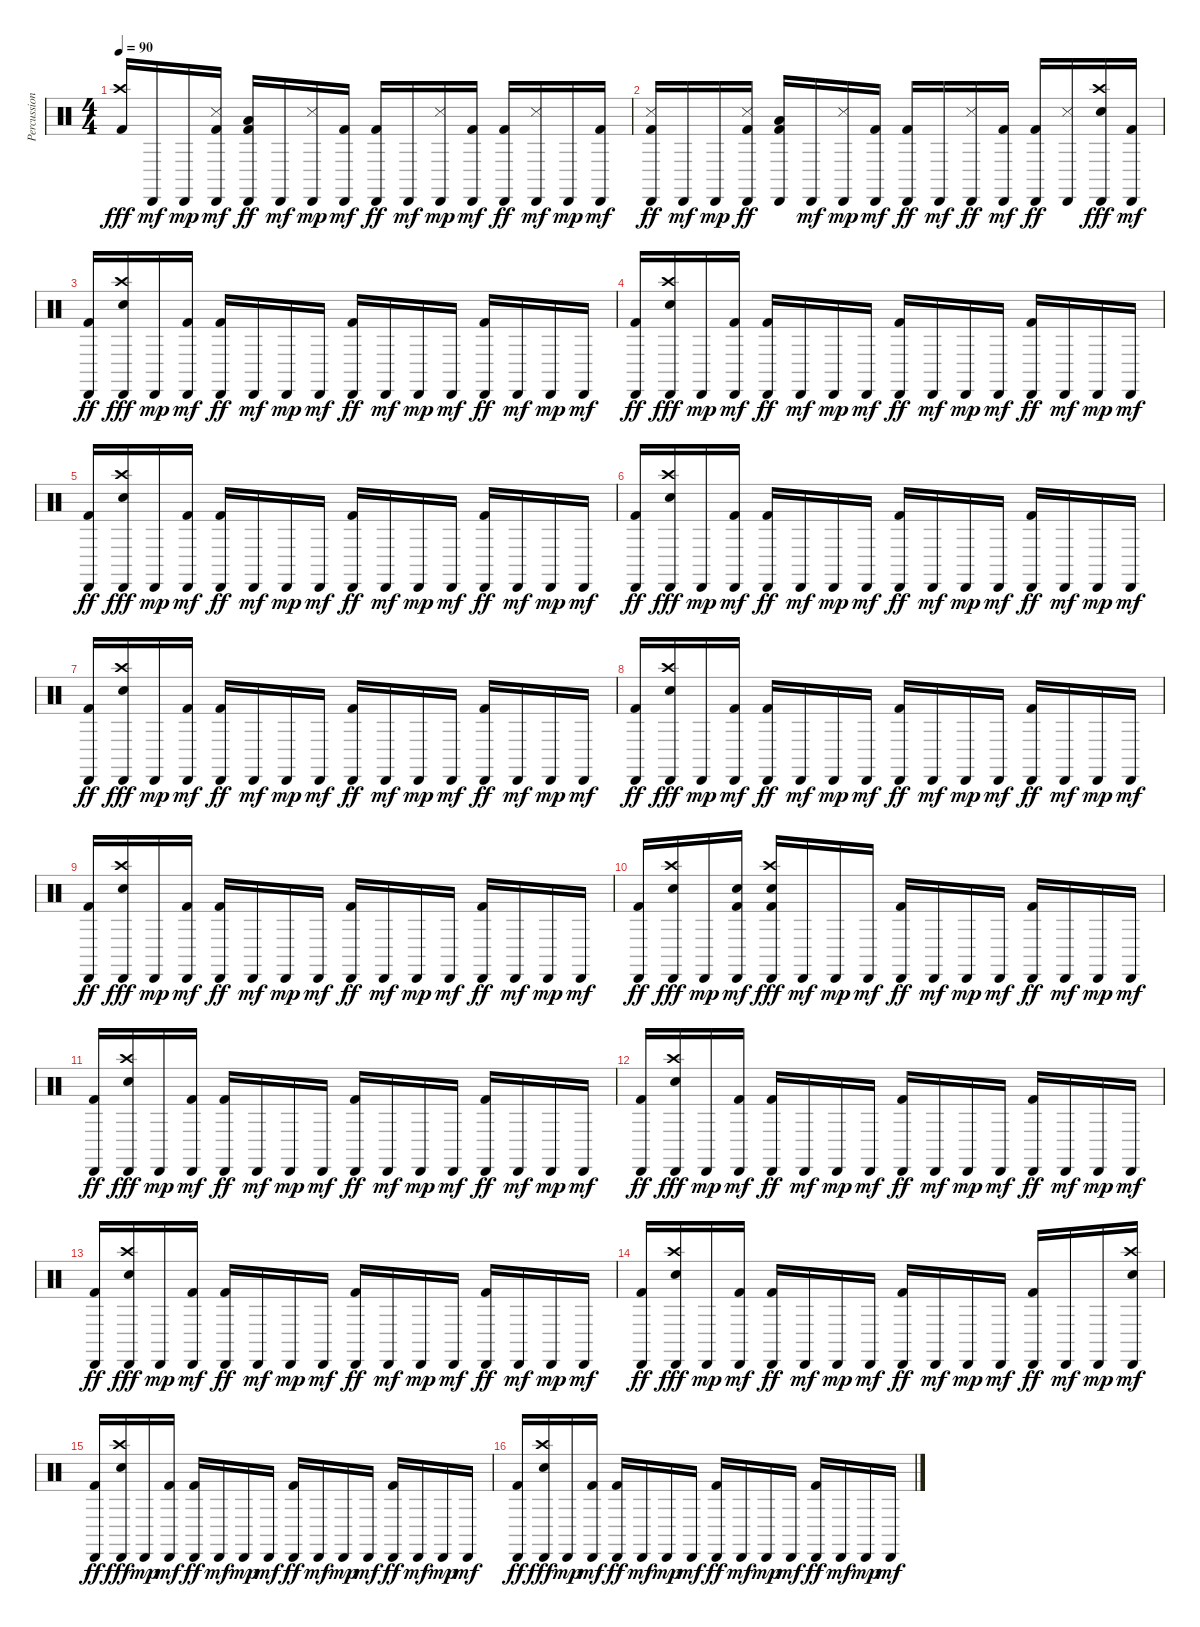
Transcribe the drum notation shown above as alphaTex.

\track ("Percussions" "Percussion") {instrument percussion}
\staff {score}
\articulation defaults
\ts (4 4)
\tempo 90
\clef neutral
\ks c
("Kick (hit) 2" "Crash high (hit)").16{dy fff} "Cabasa (hit)".16{dy mf} "Cabasa (hit)".16{dy mp} ("Cabasa (hit)" "Snare (side stick) 3" "Kick (hit) 2").16{dy mf} ("Low Floor Tom (hit)" "Cabasa (hit)" "Kick (hit) 2").16{dy ff} "Cabasa (hit)".16{dy mf} ("Cabasa (hit)" "Snare (side stick) 3").16{dy mp} ("Cabasa (hit)" "Kick (hit) 2").16{dy mf} ("Cabasa (hit)" "Kick (hit) 2").16{dy ff} "Cabasa (hit)".16{dy mf} ("Cabasa (hit)" "Snare (side stick) 3").16{dy mp} ("Kick (hit) 2" "Cabasa (hit)").16{dy mf} ("Cabasa (hit)" "Kick (hit) 2").16{dy ff} ("Cabasa (hit)" "Snare (side stick) 3").16{dy mf} "Cabasa (hit)".16{dy mp} ("Cabasa (hit)" "Kick (hit) 2").16{dy mf} |
("Cabasa (hit)" "Snare (side stick) 3" "Kick (hit) 2").16{dy ff} "Cabasa (hit)".16{dy mf} "Cabasa (hit)".16{dy mp} ("Cabasa (hit)" "Snare (side stick) 3" "Kick (hit) 2").16{dy ff} ("Low Floor Tom (hit)" "Cabasa (hit)" "Kick (hit) 2").16 "Cabasa (hit)".16{dy mf} ("Snare (side stick) 3" "Cabasa (hit)").16{dy mp} ("Cabasa (hit)" "Kick (hit) 2").16{dy mf} ("Cabasa (hit)" "Kick (hit) 2").16{dy ff} "Cabasa (hit)".16{dy mf} ("Cabasa (hit)" "Snare (side stick) 3").16{dy ff} ("Cabasa (hit)" "Kick (hit) 2").16{dy mf} ("Cabasa (hit)" "Kick (hit) 2").16{dy ff} ("Cabasa (hit)" "Snare (side stick) 3").16 ("Cabasa (hit)" "Crash high (hit)" "Snare (hit) 2").16{dy fff} ("Cabasa (hit)" "Kick (hit) 2").16{dy mf} |
("Cabasa (hit)" "Kick (hit) 2").16{dy ff} ("Cabasa (hit)" "Crash high (hit)" "Snare (hit) 2").16{dy fff} "Cabasa (hit)".16{dy mp} ("Cabasa (hit)" "Kick (hit) 2").16{dy mf} ("Cabasa (hit)" "Kick (hit) 2").16{dy ff} "Cabasa (hit)".16{dy mf} "Cabasa (hit)".16{dy mp} "Cabasa (hit)".16{dy mf} ("Cabasa (hit)" "Kick (hit) 2").16{dy ff} "Cabasa (hit)".16{dy mf} "Cabasa (hit)".16{dy mp} "Cabasa (hit)".16{dy mf} ("Cabasa (hit)" "Kick (hit) 2").16{dy ff} "Cabasa (hit)".16{dy mf} "Cabasa (hit)".16{dy mp} "Cabasa (hit)".16{dy mf} |
("Cabasa (hit)" "Kick (hit) 2").16{dy ff} ("Cabasa (hit)" "Crash high (hit)" "Snare (hit) 2").16{dy fff} "Cabasa (hit)".16{dy mp} ("Cabasa (hit)" "Kick (hit) 2").16{dy mf} ("Cabasa (hit)" "Kick (hit) 2").16{dy ff} "Cabasa (hit)".16{dy mf} "Cabasa (hit)".16{dy mp} "Cabasa (hit)".16{dy mf} ("Cabasa (hit)" "Kick (hit) 2").16{dy ff} "Cabasa (hit)".16{dy mf} "Cabasa (hit)".16{dy mp} "Cabasa (hit)".16{dy mf} ("Cabasa (hit)" "Kick (hit) 2").16{dy ff} "Cabasa (hit)".16{dy mf} "Cabasa (hit)".16{dy mp} "Cabasa (hit)".16{dy mf} |
("Cabasa (hit)" "Kick (hit) 2").16{dy ff} ("Cabasa (hit)" "Crash high (hit)" "Snare (hit) 2").16{dy fff} "Cabasa (hit)".16{dy mp} ("Cabasa (hit)" "Kick (hit) 2").16{dy mf} ("Cabasa (hit)" "Kick (hit) 2").16{dy ff} "Cabasa (hit)".16{dy mf} "Cabasa (hit)".16{dy mp} "Cabasa (hit)".16{dy mf} ("Cabasa (hit)" "Kick (hit) 2").16{dy ff} "Cabasa (hit)".16{dy mf} "Cabasa (hit)".16{dy mp} "Cabasa (hit)".16{dy mf} ("Cabasa (hit)" "Kick (hit) 2").16{dy ff} "Cabasa (hit)".16{dy mf} "Cabasa (hit)".16{dy mp} "Cabasa (hit)".16{dy mf} |
("Cabasa (hit)" "Kick (hit) 2").16{dy ff} ("Cabasa (hit)" "Crash high (hit)" "Snare (hit) 2").16{dy fff} "Cabasa (hit)".16{dy mp} ("Cabasa (hit)" "Kick (hit) 2").16{dy mf} ("Cabasa (hit)" "Kick (hit) 2").16{dy ff} "Cabasa (hit)".16{dy mf} "Cabasa (hit)".16{dy mp} "Cabasa (hit)".16{dy mf} ("Cabasa (hit)" "Kick (hit) 2").16{dy ff} "Cabasa (hit)".16{dy mf} "Cabasa (hit)".16{dy mp} "Cabasa (hit)".16{dy mf} ("Cabasa (hit)" "Kick (hit) 2").16{dy ff} "Cabasa (hit)".16{dy mf} "Cabasa (hit)".16{dy mp} "Cabasa (hit)".16{dy mf} |
("Cabasa (hit)" "Kick (hit) 2").16{dy ff} ("Cabasa (hit)" "Crash high (hit)" "Snare (hit) 2").16{dy fff} "Cabasa (hit)".16{dy mp} ("Cabasa (hit)" "Kick (hit) 2").16{dy mf} ("Cabasa (hit)" "Kick (hit) 2").16{dy ff} "Cabasa (hit)".16{dy mf} "Cabasa (hit)".16{dy mp} "Cabasa (hit)".16{dy mf} ("Cabasa (hit)" "Kick (hit) 2").16{dy ff} "Cabasa (hit)".16{dy mf} "Cabasa (hit)".16{dy mp} "Cabasa (hit)".16{dy mf} ("Cabasa (hit)" "Kick (hit) 2").16{dy ff} "Cabasa (hit)".16{dy mf} "Cabasa (hit)".16{dy mp} "Cabasa (hit)".16{dy mf} |
("Cabasa (hit)" "Kick (hit) 2").16{dy ff} ("Cabasa (hit)" "Crash high (hit)" "Snare (hit) 2").16{dy fff} "Cabasa (hit)".16{dy mp} ("Cabasa (hit)" "Kick (hit) 2").16{dy mf} ("Cabasa (hit)" "Kick (hit) 2").16{dy ff} "Cabasa (hit)".16{dy mf} "Cabasa (hit)".16{dy mp} "Cabasa (hit)".16{dy mf} ("Cabasa (hit)" "Kick (hit) 2").16{dy ff} "Cabasa (hit)".16{dy mf} "Cabasa (hit)".16{dy mp} "Cabasa (hit)".16{dy mf} ("Cabasa (hit)" "Kick (hit) 2").16{dy ff} "Cabasa (hit)".16{dy mf} "Cabasa (hit)".16{dy mp} "Cabasa (hit)".16{dy mf} |
("Cabasa (hit)" "Kick (hit) 2").16{dy ff} ("Cabasa (hit)" "Crash high (hit)" "Snare (hit) 2").16{dy fff} "Cabasa (hit)".16{dy mp} ("Cabasa (hit)" "Kick (hit) 2").16{dy mf} ("Cabasa (hit)" "Kick (hit) 2").16{dy ff} "Cabasa (hit)".16{dy mf} "Cabasa (hit)".16{dy mp} "Cabasa (hit)".16{dy mf} ("Cabasa (hit)" "Kick (hit) 2").16{dy ff} "Cabasa (hit)".16{dy mf} "Cabasa (hit)".16{dy mp} "Cabasa (hit)".16{dy mf} ("Cabasa (hit)" "Kick (hit) 2").16{dy ff} "Cabasa (hit)".16{dy mf} "Cabasa (hit)".16{dy mp} "Cabasa (hit)".16{dy mf} |
("Cabasa (hit)" "Kick (hit) 2").16{dy ff} ("Cabasa (hit)" "Crash high (hit)" "Snare (hit) 2").16{dy fff} "Cabasa (hit)".16{dy mp} ("Cabasa (hit)" "Snare (hit) 2" "Kick (hit) 2").16{dy mf} ("Crash high (hit)" "Cabasa (hit)" "Snare (hit) 2" "Kick (hit) 2").16{dy fff} "Cabasa (hit)".16{dy mf} "Cabasa (hit)".16{dy mp} "Cabasa (hit)".16{dy mf} ("Cabasa (hit)" "Kick (hit) 2").16{dy ff} "Cabasa (hit)".16{dy mf} "Cabasa (hit)".16{dy mp} "Cabasa (hit)".16{dy mf} ("Cabasa (hit)" "Kick (hit) 2").16{dy ff} "Cabasa (hit)".16{dy mf} "Cabasa (hit)".16{dy mp} "Cabasa (hit)".16{dy mf} |
("Cabasa (hit)" "Kick (hit) 2").16{dy ff} ("Cabasa (hit)" "Crash high (hit)" "Snare (hit) 2").16{dy fff} "Cabasa (hit)".16{dy mp} ("Cabasa (hit)" "Kick (hit) 2").16{dy mf} ("Cabasa (hit)" "Kick (hit) 2").16{dy ff} "Cabasa (hit)".16{dy mf} "Cabasa (hit)".16{dy mp} "Cabasa (hit)".16{dy mf} ("Cabasa (hit)" "Kick (hit) 2").16{dy ff} "Cabasa (hit)".16{dy mf} "Cabasa (hit)".16{dy mp} "Cabasa (hit)".16{dy mf} ("Cabasa (hit)" "Kick (hit) 2").16{dy ff} "Cabasa (hit)".16{dy mf} "Cabasa (hit)".16{dy mp} "Cabasa (hit)".16{dy mf} |
("Cabasa (hit)" "Kick (hit) 2").16{dy ff} ("Cabasa (hit)" "Crash high (hit)" "Snare (hit) 2").16{dy fff} "Cabasa (hit)".16{dy mp} ("Cabasa (hit)" "Kick (hit) 2").16{dy mf} ("Cabasa (hit)" "Kick (hit) 2").16{dy ff} "Cabasa (hit)".16{dy mf} "Cabasa (hit)".16{dy mp} "Cabasa (hit)".16{dy mf} ("Cabasa (hit)" "Kick (hit) 2").16{dy ff} "Cabasa (hit)".16{dy mf} "Cabasa (hit)".16{dy mp} "Cabasa (hit)".16{dy mf} ("Cabasa (hit)" "Kick (hit) 2").16{dy ff} "Cabasa (hit)".16{dy mf} "Cabasa (hit)".16{dy mp} "Cabasa (hit)".16{dy mf} |
("Cabasa (hit)" "Kick (hit) 2").16{dy ff} ("Cabasa (hit)" "Crash high (hit)" "Snare (hit) 2").16{dy fff} "Cabasa (hit)".16{dy mp} ("Cabasa (hit)" "Kick (hit) 2").16{dy mf} ("Cabasa (hit)" "Kick (hit) 2").16{dy ff} "Cabasa (hit)".16{dy mf} "Cabasa (hit)".16{dy mp} "Cabasa (hit)".16{dy mf} ("Cabasa (hit)" "Kick (hit) 2").16{dy ff} "Cabasa (hit)".16{dy mf} "Cabasa (hit)".16{dy mp} "Cabasa (hit)".16{dy mf} ("Cabasa (hit)" "Kick (hit) 2").16{dy ff} "Cabasa (hit)".16{dy mf} "Cabasa (hit)".16{dy mp} "Cabasa (hit)".16{dy mf} |
("Cabasa (hit)" "Kick (hit) 2").16{dy ff} ("Cabasa (hit)" "Crash high (hit)" "Snare (hit) 2").16{dy fff} "Cabasa (hit)".16{dy mp} ("Cabasa (hit)" "Kick (hit) 2").16{dy mf} ("Cabasa (hit)" "Kick (hit) 2").16{dy ff} "Cabasa (hit)".16{dy mf} "Cabasa (hit)".16{dy mp} "Cabasa (hit)".16{dy mf} ("Cabasa (hit)" "Kick (hit) 2").16{dy ff} "Cabasa (hit)".16{dy mf} "Cabasa (hit)".16{dy mp} "Cabasa (hit)".16{dy mf} ("Cabasa (hit)" "Kick (hit) 2").16{dy ff} "Cabasa (hit)".16{dy mf} "Cabasa (hit)".16{dy mp} ("Cabasa (hit)" "Crash high (hit)" "Snare (hit) 2").16{dy mf} |
("Cabasa (hit)" "Kick (hit) 2").16{dy ff} ("Cabasa (hit)" "Crash high (hit)" "Snare (hit) 2").16{dy fff} "Cabasa (hit)".16{dy mp} ("Cabasa (hit)" "Kick (hit) 2").16{dy mf} ("Cabasa (hit)" "Kick (hit) 2").16{dy ff} "Cabasa (hit)".16{dy mf} "Cabasa (hit)".16{dy mp} "Cabasa (hit)".16{dy mf} ("Cabasa (hit)" "Kick (hit) 2").16{dy ff} "Cabasa (hit)".16{dy mf} "Cabasa (hit)".16{dy mp} "Cabasa (hit)".16{dy mf} ("Cabasa (hit)" "Kick (hit) 2").16{dy ff} "Cabasa (hit)".16{dy mf} "Cabasa (hit)".16{dy mp} "Cabasa (hit)".16{dy mf} |
("Cabasa (hit)" "Kick (hit) 2").16{dy ff} ("Cabasa (hit)" "Crash high (hit)" "Snare (hit) 2").16{dy fff} "Cabasa (hit)".16{dy mp} ("Cabasa (hit)" "Kick (hit) 2").16{dy mf} ("Cabasa (hit)" "Kick (hit) 2").16{dy ff} "Cabasa (hit)".16{dy mf} "Cabasa (hit)".16{dy mp} "Cabasa (hit)".16{dy mf} ("Cabasa (hit)" "Kick (hit) 2").16{dy ff} "Cabasa (hit)".16{dy mf} "Cabasa (hit)".16{dy mp} "Cabasa (hit)".16{dy mf} ("Cabasa (hit)" "Kick (hit) 2").16{dy ff} "Cabasa (hit)".16{dy mf} "Cabasa (hit)".16{dy mp} "Cabasa (hit)".16{dy mf}
